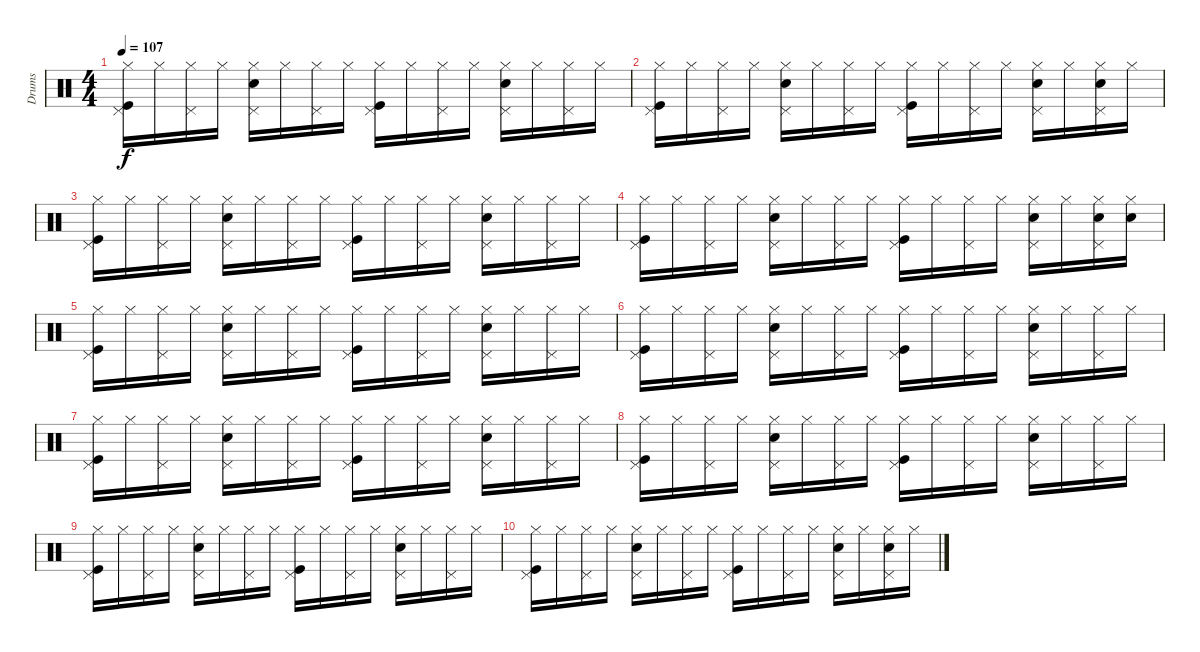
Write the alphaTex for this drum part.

\track ("Drums" "Drums") {instrument percussion}
\staff {score}
\articulation defaults
\ts (4 4)
\tempo 107
\clef neutral
\ks c
("Kick (hit)" "Pedal Hi-Hat (hit)" "Hi-Hat (closed)").16{dy f} "Hi-Hat (closed)".16 ("Pedal Hi-Hat (hit)" "Hi-Hat (closed)").16 "Hi-Hat (closed)".16 ("Snare (hit) 2" "Pedal Hi-Hat (hit)" "Hi-Hat (closed)").16 "Hi-Hat (closed)".16 ("Pedal Hi-Hat (hit)" "Hi-Hat (closed)").16 "Hi-Hat (closed)".16 ("Kick (hit)" "Pedal Hi-Hat (hit)" "Hi-Hat (closed)").16 "Hi-Hat (closed)".16 ("Pedal Hi-Hat (hit)" "Hi-Hat (closed)").16 "Hi-Hat (closed)".16 ("Snare (hit) 2" "Pedal Hi-Hat (hit)" "Hi-Hat (closed)").16 "Hi-Hat (closed)".16 ("Pedal Hi-Hat (hit)" "Hi-Hat (closed)").16 "Hi-Hat (closed)".16 |
("Kick (hit)" "Pedal Hi-Hat (hit)" "Hi-Hat (closed)").16 "Hi-Hat (closed)".16 ("Pedal Hi-Hat (hit)" "Hi-Hat (closed)").16 "Hi-Hat (closed)".16 ("Snare (hit) 2" "Pedal Hi-Hat (hit)" "Hi-Hat (closed)").16 "Hi-Hat (closed)".16 ("Pedal Hi-Hat (hit)" "Hi-Hat (closed)").16 "Hi-Hat (closed)".16 ("Kick (hit)" "Pedal Hi-Hat (hit)" "Hi-Hat (closed)").16 "Hi-Hat (closed)".16 ("Pedal Hi-Hat (hit)" "Hi-Hat (closed)").16 "Hi-Hat (closed)".16 ("Snare (hit) 2" "Pedal Hi-Hat (hit)" "Hi-Hat (closed)").16 "Hi-Hat (closed)".16 ("Snare (hit) 2" "Pedal Hi-Hat (hit)" "Hi-Hat (closed)").16 "Hi-Hat (closed)".16 |
("Kick (hit)" "Pedal Hi-Hat (hit)" "Hi-Hat (closed)").16 "Hi-Hat (closed)".16 ("Pedal Hi-Hat (hit)" "Hi-Hat (closed)").16 "Hi-Hat (closed)".16 ("Snare (hit) 2" "Pedal Hi-Hat (hit)" "Hi-Hat (closed)").16 "Hi-Hat (closed)".16 ("Pedal Hi-Hat (hit)" "Hi-Hat (closed)").16 "Hi-Hat (closed)".16 ("Kick (hit)" "Pedal Hi-Hat (hit)" "Hi-Hat (closed)").16 "Hi-Hat (closed)".16 ("Pedal Hi-Hat (hit)" "Hi-Hat (closed)").16 "Hi-Hat (closed)".16 ("Snare (hit) 2" "Pedal Hi-Hat (hit)" "Hi-Hat (closed)").16 "Hi-Hat (closed)".16 ("Pedal Hi-Hat (hit)" "Hi-Hat (closed)").16 "Hi-Hat (closed)".16 |
("Kick (hit)" "Pedal Hi-Hat (hit)" "Hi-Hat (closed)").16 "Hi-Hat (closed)".16 ("Pedal Hi-Hat (hit)" "Hi-Hat (closed)").16 "Hi-Hat (closed)".16 ("Snare (hit) 2" "Pedal Hi-Hat (hit)" "Hi-Hat (closed)").16 "Hi-Hat (closed)".16 ("Pedal Hi-Hat (hit)" "Hi-Hat (closed)").16 "Hi-Hat (closed)".16 ("Kick (hit)" "Pedal Hi-Hat (hit)" "Hi-Hat (closed)").16 "Hi-Hat (closed)".16 ("Pedal Hi-Hat (hit)" "Hi-Hat (closed)").16 "Hi-Hat (closed)".16 ("Snare (hit) 2" "Pedal Hi-Hat (hit)" "Hi-Hat (closed)").16 "Hi-Hat (closed)".16 ("Snare (hit) 2" "Pedal Hi-Hat (hit)" "Hi-Hat (closed)").16 ("Snare (hit) 2" "Hi-Hat (closed)").16 |
("Kick (hit)" "Pedal Hi-Hat (hit)" "Hi-Hat (closed)").16 "Hi-Hat (closed)".16 ("Pedal Hi-Hat (hit)" "Hi-Hat (closed)").16 "Hi-Hat (closed)".16 ("Snare (hit) 2" "Pedal Hi-Hat (hit)" "Hi-Hat (closed)").16 "Hi-Hat (closed)".16 ("Pedal Hi-Hat (hit)" "Hi-Hat (closed)").16 "Hi-Hat (closed)".16 ("Kick (hit)" "Pedal Hi-Hat (hit)" "Hi-Hat (closed)").16 "Hi-Hat (closed)".16 ("Pedal Hi-Hat (hit)" "Hi-Hat (closed)").16 "Hi-Hat (closed)".16 ("Snare (hit) 2" "Pedal Hi-Hat (hit)" "Hi-Hat (closed)").16 "Hi-Hat (closed)".16 ("Pedal Hi-Hat (hit)" "Hi-Hat (closed)").16 "Hi-Hat (closed)".16 |
("Kick (hit)" "Pedal Hi-Hat (hit)" "Hi-Hat (closed)").16 "Hi-Hat (closed)".16 ("Pedal Hi-Hat (hit)" "Hi-Hat (closed)").16 "Hi-Hat (closed)".16 ("Snare (hit) 2" "Pedal Hi-Hat (hit)" "Hi-Hat (closed)").16 "Hi-Hat (closed)".16 ("Pedal Hi-Hat (hit)" "Hi-Hat (closed)").16 "Hi-Hat (closed)".16 ("Kick (hit)" "Pedal Hi-Hat (hit)" "Hi-Hat (closed)").16 "Hi-Hat (closed)".16 ("Pedal Hi-Hat (hit)" "Hi-Hat (closed)").16 "Hi-Hat (closed)".16 ("Snare (hit) 2" "Pedal Hi-Hat (hit)" "Hi-Hat (closed)").16 "Hi-Hat (closed)".16 ("Pedal Hi-Hat (hit)" "Hi-Hat (closed)").16 "Hi-Hat (closed)".16 |
("Kick (hit)" "Pedal Hi-Hat (hit)" "Hi-Hat (closed)").16{volume 0} "Hi-Hat (closed)".16 ("Pedal Hi-Hat (hit)" "Hi-Hat (closed)").16 "Hi-Hat (closed)".16 ("Snare (hit) 2" "Pedal Hi-Hat (hit)" "Hi-Hat (closed)").16 "Hi-Hat (closed)".16 ("Pedal Hi-Hat (hit)" "Hi-Hat (closed)").16 "Hi-Hat (closed)".16 ("Kick (hit)" "Pedal Hi-Hat (hit)" "Hi-Hat (closed)").16 "Hi-Hat (closed)".16 ("Pedal Hi-Hat (hit)" "Hi-Hat (closed)").16 "Hi-Hat (closed)".16 ("Snare (hit) 2" "Pedal Hi-Hat (hit)" "Hi-Hat (closed)").16 "Hi-Hat (closed)".16 ("Pedal Hi-Hat (hit)" "Hi-Hat (closed)").16 "Hi-Hat (closed)".16 |
("Kick (hit)" "Pedal Hi-Hat (hit)" "Hi-Hat (closed)").16 "Hi-Hat (closed)".16 ("Pedal Hi-Hat (hit)" "Hi-Hat (closed)").16 "Hi-Hat (closed)".16 ("Snare (hit) 2" "Pedal Hi-Hat (hit)" "Hi-Hat (closed)").16 "Hi-Hat (closed)".16 ("Pedal Hi-Hat (hit)" "Hi-Hat (closed)").16 "Hi-Hat (closed)".16 ("Kick (hit)" "Pedal Hi-Hat (hit)" "Hi-Hat (closed)").16 "Hi-Hat (closed)".16 ("Pedal Hi-Hat (hit)" "Hi-Hat (closed)").16 "Hi-Hat (closed)".16 ("Snare (hit) 2" "Pedal Hi-Hat (hit)" "Hi-Hat (closed)").16 "Hi-Hat (closed)".16 ("Pedal Hi-Hat (hit)" "Hi-Hat (closed)").16 "Hi-Hat (closed)".16 |
("Kick (hit)" "Pedal Hi-Hat (hit)" "Hi-Hat (closed)").16 "Hi-Hat (closed)".16 ("Pedal Hi-Hat (hit)" "Hi-Hat (closed)").16 "Hi-Hat (closed)".16 ("Snare (hit) 2" "Pedal Hi-Hat (hit)" "Hi-Hat (closed)").16 "Hi-Hat (closed)".16 ("Pedal Hi-Hat (hit)" "Hi-Hat (closed)").16 "Hi-Hat (closed)".16 ("Kick (hit)" "Pedal Hi-Hat (hit)" "Hi-Hat (closed)").16 "Hi-Hat (closed)".16 ("Pedal Hi-Hat (hit)" "Hi-Hat (closed)").16 "Hi-Hat (closed)".16 ("Snare (hit) 2" "Pedal Hi-Hat (hit)" "Hi-Hat (closed)").16 "Hi-Hat (closed)".16 ("Pedal Hi-Hat (hit)" "Hi-Hat (closed)").16 "Hi-Hat (closed)".16 |
("Kick (hit)" "Pedal Hi-Hat (hit)" "Hi-Hat (closed)").16 "Hi-Hat (closed)".16 ("Pedal Hi-Hat (hit)" "Hi-Hat (closed)").16 "Hi-Hat (closed)".16 ("Snare (hit) 2" "Pedal Hi-Hat (hit)" "Hi-Hat (closed)").16 "Hi-Hat (closed)".16 ("Pedal Hi-Hat (hit)" "Hi-Hat (closed)").16 "Hi-Hat (closed)".16 ("Kick (hit)" "Pedal Hi-Hat (hit)" "Hi-Hat (closed)").16 "Hi-Hat (closed)".16 ("Pedal Hi-Hat (hit)" "Hi-Hat (closed)").16 "Hi-Hat (closed)".16 ("Snare (hit) 2" "Pedal Hi-Hat (hit)" "Hi-Hat (closed)").16 "Hi-Hat (closed)".16 ("Snare (hit) 2" "Pedal Hi-Hat (hit)" "Hi-Hat (closed)").16 "Hi-Hat (closed)".16
